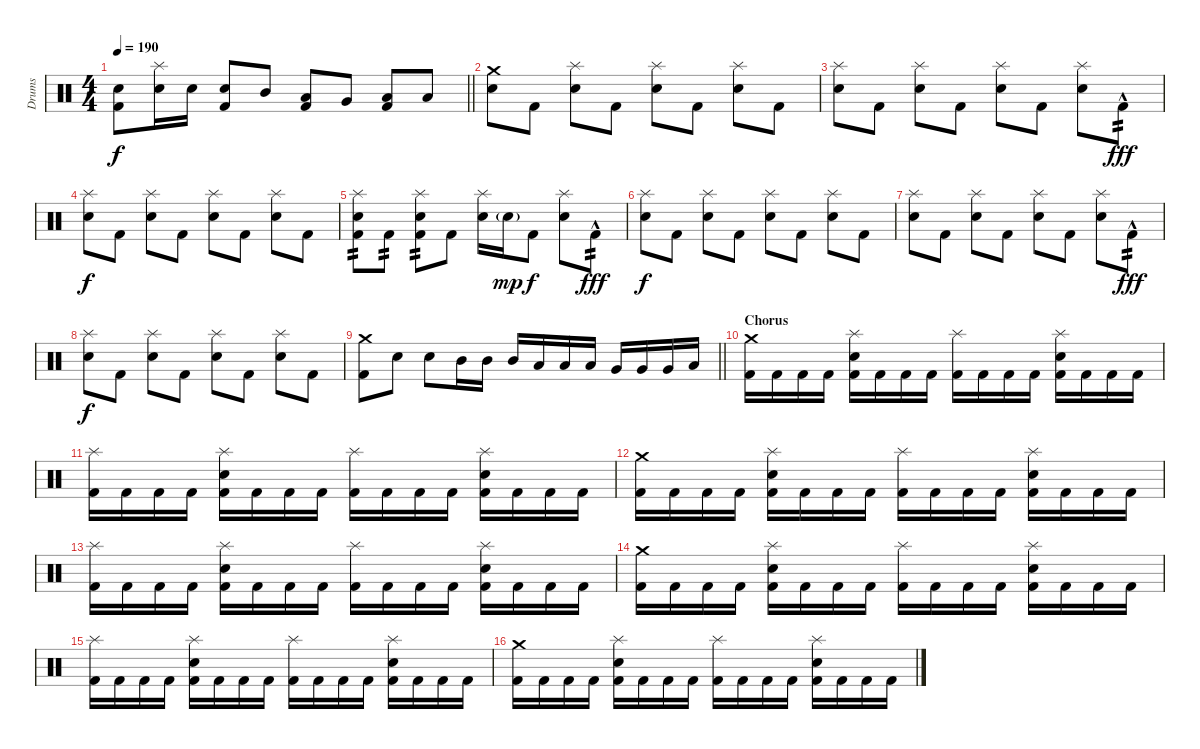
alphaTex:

\track ("Drums" "Drums") {instrument percussion}
\staff {score}
\articulation defaults
\ts (4 4)
\tempo 190
\clef neutral
\barLineRight lightlight
\ks c
("Kick (hit) 2" "Snare (hit) 2").8{dy f} ("Snare (hit) 2" "Splash (hit)").16 "Snare (hit) 2".16 ("Kick (hit) 2" "Snare (hit) 2").8 "Mid Tom (hit)".8 ("Kick (hit) 2" "Low Tom (hit)").8 "Very Low Tom (hit)".8 ("Kick (hit) 2" "Low Floor Tom (hit)").8 "Low Floor Tom (hit)".8 |
\section ("" "")
("Snare (hit) 2" "Crash medium (hit)").8 "Kick (hit) 2".8 ("Snare (hit) 2" "Splash (hit)").8 "Kick (hit) 2".8 ("Snare (hit) 2" "Splash (hit)").8 "Kick (hit) 2".8 ("Snare (hit) 2" "Splash (hit)").8 "Kick (hit) 2".8 |
("Snare (hit) 2" "Splash (hit)").8 "Kick (hit) 2".8 ("Snare (hit) 2" "Splash (hit)").8 "Kick (hit) 2".8 ("Snare (hit) 2" "Splash (hit)").8 "Kick (hit) 2".8 ("Snare (hit) 2" "Splash (hit)").8 "Kick (hit) 2"{hac}.8{tp 2 dy fff} |
("Snare (hit) 2" "Splash (hit)").8{dy f} "Kick (hit) 2".8 ("Snare (hit) 2" "Splash (hit)").8 "Kick (hit) 2".8 ("Snare (hit) 2" "Splash (hit)").8 "Kick (hit) 2".8 ("Snare (hit) 2" "Splash (hit)").8 "Kick (hit) 2".8 |
("Kick (hit) 2" "Snare (hit) 2" "Splash (hit)").8{tp 2} "Kick (hit) 2".8{tp 2} ("Kick (hit) 2" "Snare (hit) 2" "Splash (hit)").8{tp 2} "Kick (hit) 2".8 ("Snare (hit) 2" "Splash (hit)").16 "Snare (hit) 2"{g}.16{dy mp} "Kick (hit) 2".8{dy f} ("Snare (hit) 2" "Splash (hit)").8 "Kick (hit) 2"{hac}.8{tp 2 dy fff} |
("Snare (hit) 2" "Splash (hit)").8{dy f} "Kick (hit) 2".8 ("Snare (hit) 2" "Splash (hit)").8 "Kick (hit) 2".8 ("Snare (hit) 2" "Splash (hit)").8 "Kick (hit) 2".8 ("Snare (hit) 2" "Splash (hit)").8 "Kick (hit) 2".8 |
("Snare (hit) 2" "Splash (hit)").8 "Kick (hit) 2".8 ("Snare (hit) 2" "Splash (hit)").8 "Kick (hit) 2".8 ("Snare (hit) 2" "Splash (hit)").8 "Kick (hit) 2".8 ("Snare (hit) 2" "Splash (hit)").8 "Kick (hit) 2"{hac}.8{tp 2 dy fff} |
("Snare (hit) 2" "Splash (hit)").8{dy f} "Kick (hit) 2".8 ("Snare (hit) 2" "Splash (hit)").8 "Kick (hit) 2".8 ("Snare (hit) 2" "Splash (hit)").8 "Kick (hit) 2".8 ("Snare (hit) 2" "Splash (hit)").8 "Kick (hit) 2".8 |
\barLineRight lightlight
("Kick (hit) 2" "Crash medium (hit)").8 "Snare (hit) 2".8 "Snare (hit) 2".8 "Mid Tom (hit)".16 "Mid Tom (hit)".16 "Mid Tom (hit)".16 "Low Tom (hit)".16 "Low Tom (hit)".16 "Low Tom (hit)".16 "Very Low Tom (hit)".16 "Very Low Tom (hit)".16 "Very Low Tom (hit)".16 "Low Floor Tom (hit)".16 |
\section ("" "Chorus")
("Kick (hit) 2" "Crash medium (hit)").16 "Kick (hit) 2".16 "Kick (hit) 2".16 "Kick (hit) 2".16 ("Kick (hit) 2" "Snare (hit) 2" "Splash (hit)").16 "Kick (hit) 2".16 "Kick (hit) 2".16 "Kick (hit) 2".16 ("Kick (hit) 2" "Splash (hit)").16 "Kick (hit) 2".16 "Kick (hit) 2".16 "Kick (hit) 2".16 ("Kick (hit) 2" "Snare (hit) 2" "Splash (hit)").16 "Kick (hit) 2".16 "Kick (hit) 2".16 "Kick (hit) 2".16 |
("Kick (hit) 2" "Splash (hit)").16 "Kick (hit) 2".16 "Kick (hit) 2".16 "Kick (hit) 2".16 ("Kick (hit) 2" "Snare (hit) 2" "Splash (hit)").16 "Kick (hit) 2".16 "Kick (hit) 2".16 "Kick (hit) 2".16 ("Kick (hit) 2" "Splash (hit)").16 "Kick (hit) 2".16 "Kick (hit) 2".16 "Kick (hit) 2".16 ("Kick (hit) 2" "Snare (hit) 2" "Splash (hit)").16 "Kick (hit) 2".16 "Kick (hit) 2".16 "Kick (hit) 2".16 |
("Kick (hit) 2" "Crash medium (hit)").16 "Kick (hit) 2".16 "Kick (hit) 2".16 "Kick (hit) 2".16 ("Kick (hit) 2" "Snare (hit) 2" "Splash (hit)").16 "Kick (hit) 2".16 "Kick (hit) 2".16 "Kick (hit) 2".16 ("Kick (hit) 2" "Splash (hit)").16 "Kick (hit) 2".16 "Kick (hit) 2".16 "Kick (hit) 2".16 ("Kick (hit) 2" "Snare (hit) 2" "Splash (hit)").16 "Kick (hit) 2".16 "Kick (hit) 2".16 "Kick (hit) 2".16 |
("Kick (hit) 2" "Splash (hit)").16 "Kick (hit) 2".16 "Kick (hit) 2".16 "Kick (hit) 2".16 ("Kick (hit) 2" "Snare (hit) 2" "Splash (hit)").16 "Kick (hit) 2".16 "Kick (hit) 2".16 "Kick (hit) 2".16 ("Kick (hit) 2" "Splash (hit)").16 "Kick (hit) 2".16 "Kick (hit) 2".16 "Kick (hit) 2".16 ("Kick (hit) 2" "Snare (hit) 2" "Splash (hit)").16 "Kick (hit) 2".16 "Kick (hit) 2".16 "Kick (hit) 2".16 |
("Kick (hit) 2" "Crash medium (hit)").16 "Kick (hit) 2".16 "Kick (hit) 2".16 "Kick (hit) 2".16 ("Kick (hit) 2" "Snare (hit) 2" "Splash (hit)").16 "Kick (hit) 2".16 "Kick (hit) 2".16 "Kick (hit) 2".16 ("Kick (hit) 2" "Splash (hit)").16 "Kick (hit) 2".16 "Kick (hit) 2".16 "Kick (hit) 2".16 ("Kick (hit) 2" "Snare (hit) 2" "Splash (hit)").16 "Kick (hit) 2".16 "Kick (hit) 2".16 "Kick (hit) 2".16 |
("Kick (hit) 2" "Splash (hit)").16 "Kick (hit) 2".16 "Kick (hit) 2".16 "Kick (hit) 2".16 ("Kick (hit) 2" "Snare (hit) 2" "Splash (hit)").16 "Kick (hit) 2".16 "Kick (hit) 2".16 "Kick (hit) 2".16 ("Kick (hit) 2" "Splash (hit)").16 "Kick (hit) 2".16 "Kick (hit) 2".16 "Kick (hit) 2".16 ("Kick (hit) 2" "Snare (hit) 2" "Splash (hit)").16 "Kick (hit) 2".16 "Kick (hit) 2".16 "Kick (hit) 2".16 |
("Kick (hit) 2" "Crash medium (hit)").16 "Kick (hit) 2".16 "Kick (hit) 2".16 "Kick (hit) 2".16 ("Kick (hit) 2" "Snare (hit) 2" "Splash (hit)").16 "Kick (hit) 2".16 "Kick (hit) 2".16 "Kick (hit) 2".16 ("Kick (hit) 2" "Splash (hit)").16 "Kick (hit) 2".16 "Kick (hit) 2".16 "Kick (hit) 2".16 ("Kick (hit) 2" "Snare (hit) 2" "Splash (hit)").16 "Kick (hit) 2".16 "Kick (hit) 2".16 "Kick (hit) 2".16
